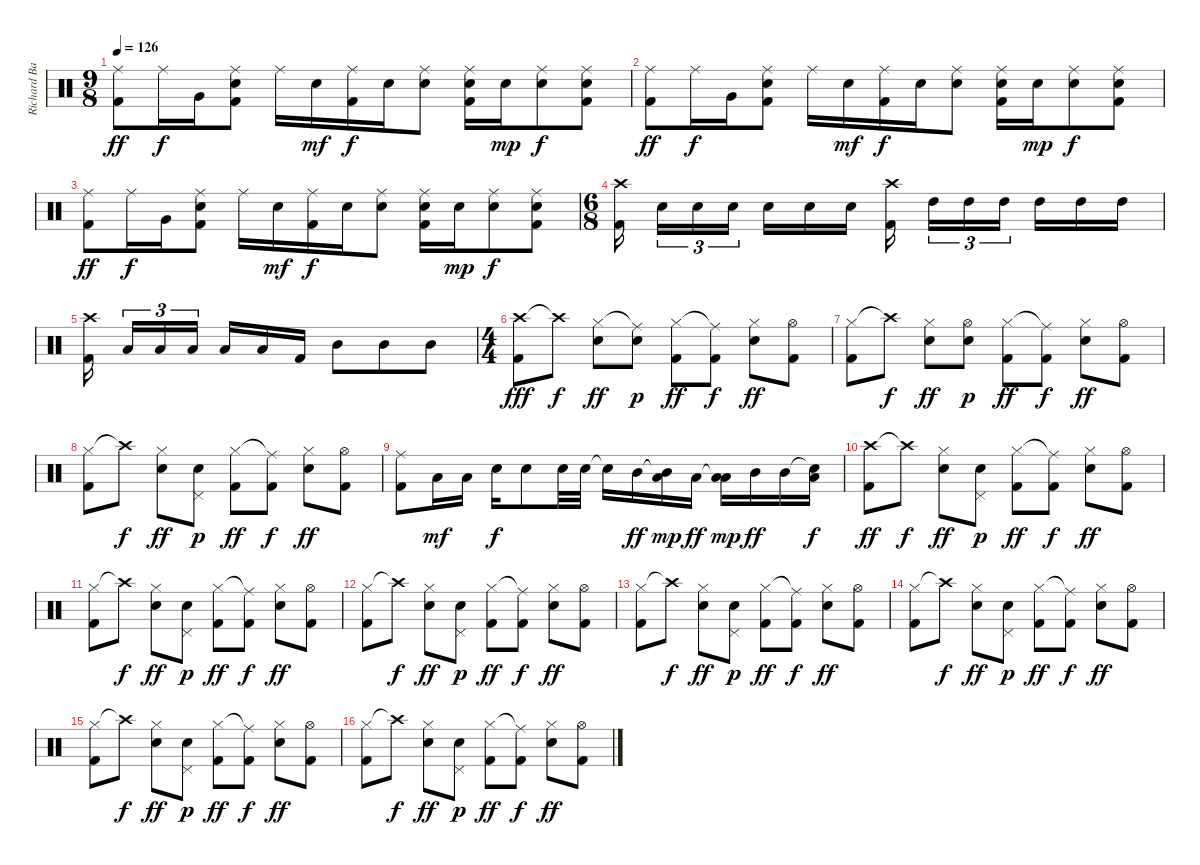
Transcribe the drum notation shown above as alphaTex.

\track ("Richard Bailey" "Richard Ba") {instrument percussion}
\staff {score}
\articulation defaults
\ts (9 8)
\tempo 126
\clef neutral
\ks c
("Ride (middle)" "Kick (hit) 2").8{dy ff} "Ride (middle)".16{dy f} "Very Low Tom (hit)".16 ("Ride (middle)" "Snare (hit) 2" "Kick (hit) 2").8 "Ride (middle)".16 "Snare (hit) 2".16{dy mf} ("Ride (middle)" "Kick (hit) 2").16{dy f} "Snare (hit) 2".16 ("Ride (middle)" "Snare (hit) 2").8 ("Ride (middle)" "Snare (hit) 2" "Kick (hit) 2").16 "Snare (hit) 2".16{dy mp} ("Ride (middle)" "Snare (hit) 2").8{dy f} ("Ride (middle)" "Snare (hit) 2" "Kick (hit) 2").8 |
("Ride (middle)" "Kick (hit) 2").8{dy ff} "Ride (middle)".16{dy f} "Very Low Tom (hit)".16 ("Ride (middle)" "Snare (hit) 2" "Kick (hit) 2").8 "Ride (middle)".16 "Snare (hit) 2".16{dy mf} ("Ride (middle)" "Kick (hit) 2").16{dy f} "Snare (hit) 2".16 ("Ride (middle)" "Snare (hit) 2").8 ("Ride (middle)" "Snare (hit) 2" "Kick (hit) 2").16 "Snare (hit) 2".16{dy mp} ("Ride (middle)" "Snare (hit) 2").8{dy f} ("Ride (middle)" "Snare (hit) 2" "Kick (hit) 2").8 |
("Ride (middle)" "Kick (hit) 2").8{dy ff} "Ride (middle)".16{dy f} "Very Low Tom (hit)".16 ("Ride (middle)" "Snare (hit) 2" "Kick (hit) 2").8 "Ride (middle)".16 "Snare (hit) 2".16{dy mf} ("Ride (middle)" "Kick (hit) 2").16{dy f} "Snare (hit) 2".16 ("Ride (middle)" "Snare (hit) 2").8 ("Ride (middle)" "Snare (hit) 2" "Kick (hit) 2").16 "Snare (hit) 2".16{dy mp} ("Ride (middle)" "Snare (hit) 2").8{dy f} ("Ride (middle)" "Snare (hit) 2" "Kick (hit) 2").8 |
\ts (6 8)
("Crash high (hit)" "Kick (hit) 2").16 "Snare (hit) 2".16{tu (3 2)} "Snare (hit) 2".16{tu (3 2)} "Snare (hit) 2".16{tu (3 2)} "Snare (hit) 2".16 "Snare (hit) 2".16 "Snare (hit) 2".16 ("Crash high (hit)" "Kick (hit) 2").16 "High Tom (hit)".16{tu (3 2)} "High Tom (hit)".16{tu (3 2)} "High Tom (hit)".16{tu (3 2)} "High Tom (hit)".16 "High Tom (hit)".16 "High Tom (hit)".16 |
("Crash high (hit)" "Kick (hit) 2").16 "Low Tom (hit)".16{tu (3 2)} "Low Tom (hit)".16{tu (3 2)} "Low Tom (hit)".16{tu (3 2)} "Low Tom (hit)".16 "Low Tom (hit)".16 "Kick (hit) 2".16 "Mid Tom (hit)".8 "Mid Tom (hit)".8 "Mid Tom (hit)".8 |
\ts (4 4)
("Crash high (hit)" "Kick (hit) 2").8{dy fff} "Crash high (hit)"{t}.8{dy f} ("Hi-Hat (closed)" "Snare (hit) 2").8{dy ff} ("Ride (middle)"{t} "Snare (hit) 2").8{dy p} ("Hi-Hat (closed)" "Kick (hit) 2").8{dy ff} ("Ride (middle)"{t} "Kick (hit) 2").8{dy f} ("Hi-Hat (closed)" "Snare (hit) 2").8{dy ff} ("Hi-Hat (open)" "Kick (hit) 2").8 |
("Hi-Hat (closed)" "Kick (hit) 2").8 "Crash high (hit)"{t}.8{dy f} ("Hi-Hat (closed)" "Snare (hit) 2").8{dy ff} ("Hi-Hat (open)" "Snare (hit) 2").8{dy p} ("Hi-Hat (closed)" "Kick (hit) 2").8{dy ff} ("Ride (middle)"{t} "Kick (hit) 2").8{dy f} ("Hi-Hat (closed)" "Snare (hit) 2").8{dy ff} ("Hi-Hat (open)" "Kick (hit) 2").8 |
("Hi-Hat (closed)" "Kick (hit) 2").8 "Crash high (hit)"{t}.8{dy f} ("Hi-Hat (closed)" "Snare (hit) 2").8{dy ff} ("Pedal Hi-Hat (hit)" "Snare (hit) 2").8{dy p} ("Hi-Hat (closed)" "Kick (hit) 2").8{dy ff} ("Ride (middle)"{t} "Kick (hit) 2").8{dy f} ("Hi-Hat (closed)" "Snare (hit) 2").8{dy ff} ("Hi-Hat (open)" "Kick (hit) 2").8 |
("Ride (middle)" "Kick (hit) 2").8 "Low Floor Tom (hit)".16{dy mf} "Low Floor Tom (hit)".16 "Electric Snare (hit)".16{dy f} "Electric Snare (hit)".8 "Snare (hit) 2".32 "Snare (hit) 2".32 "Snare (hit)"{t}.16 "Mid Tom (hit)".16{dy ff} ("Mid Tom (hit)"{t} "Low Floor Tom (hit)").16{dy mp} "Low Tom (hit)".16{dy ff} ("Low Tom (hit)"{t} "Low Floor Tom (hit)").16{dy mp} "Mid Tom (hit)".16{dy ff} "Mid Tom (hit)".16 ("Snare (hit)"{t} "Low Floor Tom (hit)").16{dy f} |
("Crash high (hit)" "Kick (hit) 2").8{dy ff} "Crash high (hit)"{t}.8{dy f} ("Hi-Hat (closed)" "Snare (hit) 2").8{dy ff} ("Pedal Hi-Hat (hit)" "Snare (hit) 2").8{dy p} ("Hi-Hat (closed)" "Kick (hit) 2").8{dy ff} ("Ride (middle)"{t} "Kick (hit) 2").8{dy f} ("Hi-Hat (closed)" "Snare (hit) 2").8{dy ff} ("Hi-Hat (open)" "Kick (hit) 2").8 |
("Hi-Hat (closed)" "Kick (hit) 2").8 "Crash high (hit)"{t}.8{dy f} ("Hi-Hat (closed)" "Snare (hit) 2").8{dy ff} ("Pedal Hi-Hat (hit)" "Snare (hit) 2").8{dy p} ("Hi-Hat (closed)" "Kick (hit) 2").8{dy ff} ("Ride (middle)"{t} "Kick (hit) 2").8{dy f} ("Hi-Hat (closed)" "Snare (hit) 2").8{dy ff} ("Hi-Hat (open)" "Kick (hit) 2").8 |
("Hi-Hat (closed)" "Kick (hit) 2").8 "Crash high (hit)"{t}.8{dy f} ("Hi-Hat (closed)" "Snare (hit) 2").8{dy ff} ("Pedal Hi-Hat (hit)" "Snare (hit) 2").8{dy p} ("Hi-Hat (closed)" "Kick (hit) 2").8{dy ff} ("Ride (middle)"{t} "Kick (hit) 2").8{dy f} ("Hi-Hat (closed)" "Snare (hit) 2").8{dy ff} ("Hi-Hat (open)" "Kick (hit) 2").8 |
("Hi-Hat (closed)" "Kick (hit) 2").8 "Crash high (hit)"{t}.8{dy f} ("Hi-Hat (closed)" "Snare (hit) 2").8{dy ff} ("Pedal Hi-Hat (hit)" "Snare (hit) 2").8{dy p} ("Hi-Hat (closed)" "Kick (hit) 2").8{dy ff} ("Ride (middle)"{t} "Kick (hit) 2").8{dy f} ("Hi-Hat (closed)" "Snare (hit) 2").8{dy ff} ("Hi-Hat (open)" "Kick (hit) 2").8 |
("Hi-Hat (closed)" "Kick (hit) 2").8 "Crash high (hit)"{t}.8{dy f} ("Hi-Hat (closed)" "Snare (hit) 2").8{dy ff} ("Pedal Hi-Hat (hit)" "Snare (hit) 2").8{dy p} ("Hi-Hat (closed)" "Kick (hit) 2").8{dy ff} ("Ride (middle)"{t} "Kick (hit) 2").8{dy f} ("Hi-Hat (closed)" "Snare (hit) 2").8{dy ff} ("Hi-Hat (open)" "Kick (hit) 2").8 |
("Hi-Hat (closed)" "Kick (hit) 2").8 "Crash high (hit)"{t}.8{dy f} ("Hi-Hat (closed)" "Snare (hit) 2").8{dy ff} ("Pedal Hi-Hat (hit)" "Snare (hit) 2").8{dy p} ("Hi-Hat (closed)" "Kick (hit) 2").8{dy ff} ("Ride (middle)"{t} "Kick (hit) 2").8{dy f} ("Hi-Hat (closed)" "Snare (hit) 2").8{dy ff} ("Hi-Hat (open)" "Kick (hit) 2").8 |
("Hi-Hat (closed)" "Kick (hit) 2").8 "Crash high (hit)"{t}.8{dy f} ("Hi-Hat (closed)" "Snare (hit) 2").8{dy ff} ("Pedal Hi-Hat (hit)" "Snare (hit) 2").8{dy p} ("Hi-Hat (closed)" "Kick (hit) 2").8{dy ff} ("Ride (middle)"{t} "Kick (hit) 2").8{dy f} ("Hi-Hat (closed)" "Snare (hit) 2").8{dy ff} ("Hi-Hat (open)" "Kick (hit) 2").8
